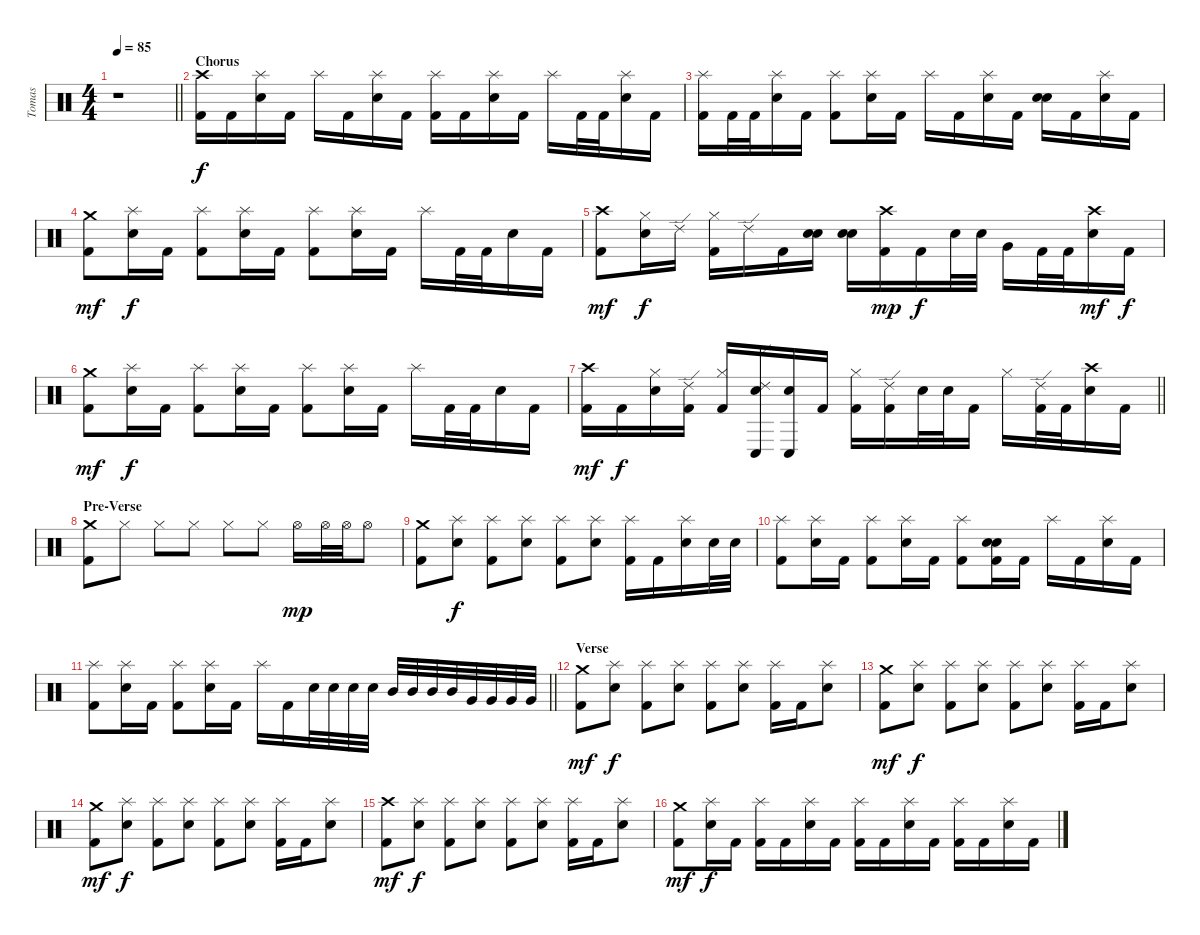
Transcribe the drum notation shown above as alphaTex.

\track ("Tomas" "Tomas") {instrument percussion}
\staff {score}
\articulation defaults
\ts (4 4)
\tempo 85
\clef neutral
\barLineRight lightlight
\ks c
r.1{dy mf} |
\section ("" "Chorus")
("Kick (hit) 2" "Crash high (hit)").16{dy f} "Kick (hit) 2".16 ("Electric Snare (hit)" "Splash (hit)").16 "Kick (hit) 2".16 "Splash (hit)".16 "Kick (hit) 2".16 ("Electric Snare (hit)" "Splash (hit)").16 "Kick (hit) 2".16 ("Kick (hit) 2" "Splash (hit)").16 "Kick (hit) 2".16 ("Electric Snare (hit)" "Splash (hit)").16 "Kick (hit) 2".16 "Splash (hit)".16 "Kick (hit) 2".32 "Kick (hit) 2".32 ("Electric Snare (hit)" "Splash (hit)").16 "Kick (hit) 2".16 |
("Kick (hit) 2" "Splash (hit)").16 "Kick (hit) 2".32 "Kick (hit) 2".32 ("Electric Snare (hit)" "Splash (hit)").16 "Kick (hit) 2".16 ("Kick (hit) 2" "Splash (hit)").8 ("Electric Snare (hit)" "Splash (hit)").16 "Kick (hit) 2".16 "Splash (hit)".16 "Kick (hit) 2".16 ("Electric Snare (hit)" "Splash (hit)").16 "Kick (hit) 2".16 ("Electric Snare (hit)" "Snare (hit) 2").16 "Kick (hit) 2".16 ("Electric Snare (hit)" "Splash (hit)").16 "Kick (hit) 2".16 |
("Kick (hit) 2" "Crash medium (hit)").8{dy mf} ("Electric Snare (hit)" "Splash (hit)").16{dy f} "Kick (hit) 2".16 ("Kick (hit) 2" "Splash (hit)").8 ("Electric Snare (hit)" "Splash (hit)").16 "Kick (hit) 2".16 ("Kick (hit) 2" "Splash (hit)").8 ("Electric Snare (hit)" "Splash (hit)").16 "Kick (hit) 2".16 "Splash (hit)".16 "Kick (hit) 2".32 "Kick (hit) 2".32 "Electric Snare (hit)".16 "Kick (hit) 2".16 |
("Kick (hit) 2" "Crash high (hit)").8{dy mf} ("Electric Snare (hit)" "Hi-Hat (closed)").16{dy f} "Ride (edge) 2".16 ("Kick (hit) 2" "Hi-Hat (closed)").16 "Ride (edge) 2".16 "Kick (hit) 2".16 ("Electric Snare (hit)" "Snare (hit) 2").16 ("Electric Snare (hit)" "Snare (hit) 2").16 ("Kick (hit) 2" "Crash high (hit)").16{dy mp} "Kick (hit) 2".16{dy f} "Electric Snare (hit)".32 "Electric Snare (hit)".32 "Very Low Tom (hit)".16 "Kick (hit) 2".32 "Kick (hit) 2".32 ("Electric Snare (hit)" "Crash high (hit)").16{dy mf} "Kick (hit) 2".16{dy f} |
("Kick (hit) 2" "Crash medium (hit)").8{dy mf} ("Electric Snare (hit)" "Splash (hit)").16{dy f} "Kick (hit) 2".16 ("Kick (hit) 2" "Splash (hit)").8 ("Electric Snare (hit)" "Splash (hit)").16 "Kick (hit) 2".16 ("Kick (hit) 2" "Splash (hit)").8 ("Electric Snare (hit)" "Splash (hit)").16 "Kick (hit) 2".16 "Splash (hit)".16 "Kick (hit) 2".32 "Kick (hit) 2".32 "Electric Snare (hit)".16 "Kick (hit) 2".16 |
\barLineRight lightlight
("Kick (hit) 2" "Crash high (hit)").16{dy mf} "Kick (hit) 2".16{dy f} ("Electric Snare (hit)" "Hi-Hat (closed)").16 ("Kick (hit) 2" "Ride (edge) 2").16 ("Kick (hit) 2" "Hi-Hat (closed)").16 ("Electric Snare (hit)" "Conga low (hit)" "Ride (edge) 2").16 ("Electric Snare (hit)" "Conga low (hit)").16 "Kick (hit) 2".16 ("Kick (hit) 2" "Hi-Hat (closed)").16 ("Kick (hit) 2" "Ride (edge) 2").16 "Electric Snare (hit)".32 "Electric Snare (hit)".32 "Kick (hit) 2".16 "Hi-Hat (closed)".16 ("Kick (hit) 2" "Ride (edge) 2").32 "Kick (hit) 2".32 ("Electric Snare (hit)" "Crash high (hit)").16 "Kick (hit) 2".16 |
\section ("" "Pre-Verse")
("Kick (hit) 2" "Crash medium (hit)").8 "Hi-Hat (closed)".8 "Hi-Hat (closed)".8 "Hi-Hat (closed)".8 "Hi-Hat (closed)".8 "Hi-Hat (closed)".8 "Hi-Hat (open)".16{dy mp} "Hi-Hat (open)".32 "Hi-Hat (open)".32 "Hi-Hat (open)".8 |
("Kick (hit) 2" "Crash medium (hit)").8 ("Electric Snare (hit)" "Splash (hit)").8{dy f} ("Kick (hit) 2" "Splash (hit)").8 ("Electric Snare (hit)" "Splash (hit)").8 ("Kick (hit) 2" "Splash (hit)").8 ("Electric Snare (hit)" "Splash (hit)").8 ("Kick (hit) 2" "Splash (hit)").16 "Kick (hit) 2".16 ("Electric Snare (hit)" "Splash (hit)").16 "Electric Snare (hit)".32 "Electric Snare (hit)".32 |
("Kick (hit) 2" "Splash (hit)").8 ("Electric Snare (hit)" "Splash (hit)").16 "Kick (hit) 2".16 ("Kick (hit) 2" "Splash (hit)").8 ("Electric Snare (hit)" "Splash (hit)").16 "Kick (hit) 2".16 ("Kick (hit) 2" "Splash (hit)").8 ("Kick (hit) 2" "Electric Snare (hit)" "Snare (hit) 2").16 "Kick (hit) 2".16 "Splash (hit)".16 "Kick (hit) 2".16 ("Electric Snare (hit)" "Splash (hit)").16 "Kick (hit) 2".16 |
\barLineRight lightlight
("Kick (hit) 2" "Splash (hit)").8 ("Electric Snare (hit)" "Splash (hit)").16 "Kick (hit) 2".16 ("Kick (hit) 2" "Splash (hit)").8 ("Electric Snare (hit)" "Splash (hit)").16 "Kick (hit) 2".16 "Splash (hit)".16 "Kick (hit) 2".16 "Electric Snare (hit)".32 "Electric Snare (hit)".32 "Electric Snare (hit)".32 "Electric Snare (hit)".32 "Mid Tom (hit)".32 "Mid Tom (hit)".32 "Mid Tom (hit)".32 "Mid Tom (hit)".32 "Very Low Tom (hit)".32 "Very Low Tom (hit)".32 "Very Low Tom (hit)".32 "Very Low Tom (hit)".32 |
\section ("" "Verse")
("Kick (hit) 2" "Crash medium (hit)").8{dy mf} ("Electric Snare (hit)" "Splash (hit)").8{dy f} ("Kick (hit) 2" "Splash (hit)").8 ("Electric Snare (hit)" "Splash (hit)").8 ("Kick (hit) 2" "Splash (hit)").8 ("Electric Snare (hit)" "Splash (hit)").8 ("Kick (hit) 2" "Splash (hit)").16 "Kick (hit) 2".16 ("Electric Snare (hit)" "Splash (hit)").8 |
("Kick (hit) 2" "Crash medium (hit)").8{dy mf} ("Electric Snare (hit)" "Splash (hit)").8{dy f} ("Kick (hit) 2" "Splash (hit)").8 ("Electric Snare (hit)" "Splash (hit)").8 ("Kick (hit) 2" "Splash (hit)").8 ("Electric Snare (hit)" "Splash (hit)").8 ("Kick (hit) 2" "Splash (hit)").16 "Kick (hit) 2".16 ("Electric Snare (hit)" "Splash (hit)").8 |
("Kick (hit) 2" "Crash medium (hit)").8{dy mf} ("Electric Snare (hit)" "Splash (hit)").8{dy f} ("Kick (hit) 2" "Splash (hit)").8 ("Electric Snare (hit)" "Splash (hit)").8 ("Kick (hit) 2" "Splash (hit)").8 ("Electric Snare (hit)" "Splash (hit)").8 ("Kick (hit) 2" "Splash (hit)").16 "Kick (hit) 2".16 ("Electric Snare (hit)" "Splash (hit)").8 |
("Kick (hit) 2" "Crash high (hit)").8{dy mf} ("Electric Snare (hit)" "Splash (hit)").8{dy f} ("Kick (hit) 2" "Splash (hit)").8 ("Electric Snare (hit)" "Splash (hit)").8 ("Kick (hit) 2" "Splash (hit)").8 ("Electric Snare (hit)" "Splash (hit)").8 ("Kick (hit) 2" "Splash (hit)").16 "Kick (hit) 2".16 ("Electric Snare (hit)" "Splash (hit)").8 |
("Kick (hit) 2" "Crash medium (hit)").8{dy mf} ("Electric Snare (hit)" "Splash (hit)").16{dy f} "Kick (hit) 2".16 ("Kick (hit) 2" "Splash (hit)").16 "Kick (hit) 2".16 ("Electric Snare (hit)" "Splash (hit)").16 "Kick (hit) 2".16 ("Kick (hit) 2" "Splash (hit)").16 "Kick (hit) 2".16 ("Electric Snare (hit)" "Splash (hit)").16 "Kick (hit) 2".16 ("Kick (hit) 2" "Splash (hit)").16 "Kick (hit) 2".16 ("Electric Snare (hit)" "Splash (hit)").16 "Kick (hit) 2".16
